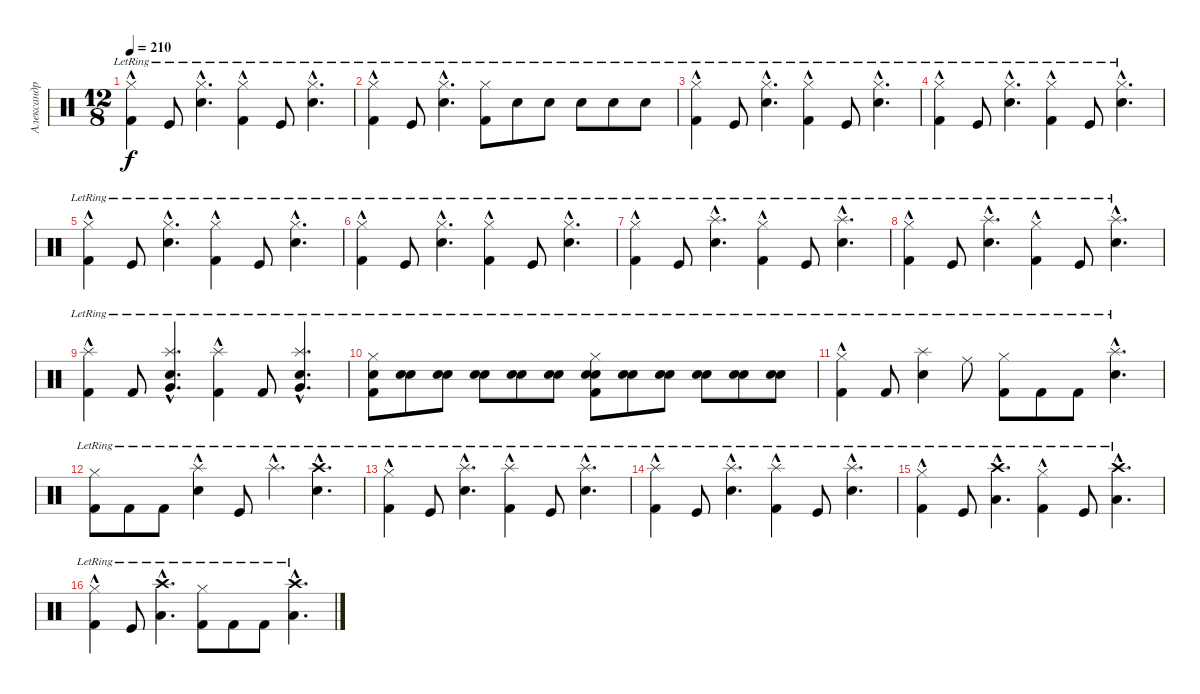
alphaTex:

\track ("Александр Манякин" "Александр ") {instrument percussion}
\staff {score}
\articulation defaults
\ts (12 8)
\tempo 210
\clef neutral
\ks c
("Hi-Hat (closed)"{hac lr} "Kick (hit) 2"{lr}).4{dy f} "Kick (hit)"{lr}.8 ("Hi-Hat (closed)"{hac lr} "Snare (hit) 2"{hac lr}).4{d} ("Hi-Hat (closed)"{hac lr} "Kick (hit) 2"{lr}).4 "Kick (hit)"{lr}.8 ("Hi-Hat (closed)"{hac lr} "Snare (hit) 2"{hac lr}).4{d} |
("Hi-Hat (closed)"{hac lr} "Kick (hit) 2"{lr}).4 "Kick (hit)"{lr}.8 ("Hi-Hat (closed)"{hac lr} "Snare (hit) 2"{hac lr}).4{d} ("Hi-Hat (closed)"{lr} "Kick (hit) 2"{lr}).8 "Snare (hit) 2"{lr}.8 "Snare (hit) 2"{lr}.8 "Snare (hit) 2"{lr}.8 "Snare (hit) 2"{lr}.8 "Snare (hit) 2"{lr}.8 |
("Hi-Hat (closed)"{hac lr} "Kick (hit) 2"{lr}).4 "Kick (hit)"{lr}.8 ("Hi-Hat (closed)"{hac lr} "Snare (hit) 2"{hac lr}).4{d} ("Hi-Hat (closed)"{hac lr} "Kick (hit) 2"{lr}).4 "Kick (hit)"{lr}.8 ("Hi-Hat (closed)"{hac lr} "Snare (hit) 2"{hac lr}).4{d} |
("Hi-Hat (closed)"{hac lr} "Kick (hit) 2"{lr}).4 "Kick (hit)"{lr}.8 ("Hi-Hat (closed)"{hac lr} "Snare (hit) 2"{hac lr}).4{d} ("Hi-Hat (closed)"{hac lr} "Kick (hit) 2"{lr}).4 "Kick (hit)"{lr}.8 ("Hi-Hat (closed)"{hac lr} "Snare (hit) 2"{hac lr}).4{d} |
("Hi-Hat (closed)"{hac lr} "Kick (hit) 2"{lr}).4 "Kick (hit)"{lr}.8 ("Hi-Hat (closed)"{hac lr} "Snare (hit) 2"{hac lr}).4{d} ("Hi-Hat (closed)"{hac lr} "Kick (hit) 2"{lr}).4 "Kick (hit)"{lr}.8 ("Hi-Hat (closed)"{hac lr} "Snare (hit) 2"{hac lr}).4{d} |
("Hi-Hat (closed)"{hac lr} "Kick (hit) 2"{lr}).4 "Kick (hit)"{lr}.8 ("Hi-Hat (closed)"{hac lr} "Snare (hit) 2"{hac lr}).4{d} ("Hi-Hat (closed)"{hac lr} "Kick (hit) 2"{lr}).4 "Kick (hit)"{lr}.8 ("Hi-Hat (closed)"{hac lr} "Snare (hit) 2"{hac lr}).4{d} |
("Kick (hit) 2"{lr} "Hi-Hat (closed)"{hac lr}).4 "Kick (hit)"{lr}.8 ("Snare (hit) 2"{hac lr} "Splash (hit)"{hac lr}).4{d} ("Kick (hit) 2"{lr} "Hi-Hat (closed)"{hac lr}).4 "Kick (hit)"{lr}.8 ("Splash (hit)"{hac lr} "Snare (hit) 2"{hac lr}).4{d} |
("Kick (hit) 2"{lr} "Hi-Hat (closed)"{hac lr}).4 "Kick (hit)"{lr}.8 ("Snare (hit) 2"{hac lr} "Splash (hit)"{hac lr}).4{d} ("Kick (hit) 2"{lr} "Hi-Hat (closed)"{hac lr}).4 "Kick (hit)"{lr}.8 ("Splash (hit)"{hac lr} "Snare (hit) 2"{hac lr}).4{d} |
("Kick (hit) 2"{lr} "Splash (hit)"{hac lr}).4 "Kick (hit) 2"{lr}.8 ("Very Low Tom (hit)"{hac lr} "Snare (hit) 2"{hac lr} "Splash (hit)"{hac lr}).4{d} ("Kick (hit) 2"{lr} "Splash (hit)"{hac lr}).4 "Kick (hit) 2"{lr}.8 ("Splash (hit)"{hac lr} "Snare (hit) 2"{hac lr} "Very Low Tom (hit)"{hac lr}).4{d} |
("Snare (hit) 2"{lr} "Hi-Hat (closed)"{lr} "Kick (hit) 2"{lr}).8 ("Electric Snare (hit)"{lr} "Snare (hit) 2"{lr}).8 ("Electric Snare (hit)"{lr} "Snare (hit) 2"{lr}).8 ("Electric Snare (hit)"{lr} "Snare (hit) 2"{lr}).8 ("Electric Snare (hit)"{lr} "Snare (hit) 2"{lr}).8 ("Electric Snare (hit)"{lr} "Snare (hit) 2"{lr}).8 ("Electric Snare (hit)"{lr} "Snare (hit) 2"{lr} "Hi-Hat (closed)"{lr} "Kick (hit) 2"{lr}).8 ("Electric Snare (hit)"{lr} "Snare (hit) 2"{lr}).8 ("Electric Snare (hit)"{lr} "Snare (hit) 2"{lr}).8 ("Electric Snare (hit)"{lr} "Snare (hit) 2"{lr}).8 ("Electric Snare (hit)"{lr} "Snare (hit) 2"{lr}).8 ("Electric Snare (hit)"{lr} "Snare (hit) 2"{lr}).8 |
("Hi-Hat (closed)"{hac lr} "Kick (hit) 2"{lr}).4 "Kick (hit) 2"{lr}.8 ("Splash (hit)"{lr} "Snare (hit) 2"{lr}).4 "Ride (middle)"{lr}.8 ("Hi-Hat (closed)"{lr} "Kick (hit) 2"{lr}).8 "Kick (hit) 2"{lr}.8 "Kick (hit) 2"{lr}.8 ("Splash (hit)"{hac lr} "Electric Snare (hit)"{hac lr}).4{d} |
("Hi-Hat (closed)"{lr} "Kick (hit) 2"{lr}).8 "Kick (hit) 2"{lr}.8 "Kick (hit) 2"{lr}.8 ("Splash (hit)"{hac lr} "Snare (hit) 2"{lr}).4 "Kick (hit)"{lr}.8 "Splash (hit)"{hac lr}.4{d} ("Crash high (hit)"{hac lr} "Snare (hit) 2"{hac lr}).4{d} |
("Hi-Hat (closed)"{hac lr} "Kick (hit) 2"{lr}).4 "Kick (hit)"{lr}.8 ("Snare (hit) 2"{hac lr} "Splash (hit)"{hac lr}).4{d} ("Kick (hit) 2"{lr} "Splash (hit)"{hac lr}).4 "Kick (hit)"{lr}.8 ("Snare (hit) 2"{hac lr} "Splash (hit)"{hac lr}).4{d} |
("Kick (hit) 2"{lr} "Splash (hit)"{hac lr}).4 "Kick (hit)"{lr}.8 ("Snare (hit) 2"{hac lr} "Splash (hit)"{hac lr}).4{d} ("Kick (hit) 2"{lr} "Splash (hit)"{hac lr}).4 "Kick (hit)"{lr}.8 ("Snare (hit) 2"{hac lr} "Splash (hit)"{hac lr}).4{d} |
("Kick (hit) 2"{lr} "Hi-Hat (closed)"{hac lr}).4 "Kick (hit)"{lr}.8 ("Crash high (hit)"{hac lr} "Low Tom (hit)"{hac lr}).4{d} ("Hi-Hat (closed)"{hac lr} "Kick (hit) 2"{lr}).4 "Kick (hit)"{lr}.8 ("Crash high (hit)"{hac lr} "Low Tom (hit)"{hac lr}).4{d} |
("Hi-Hat (closed)"{hac lr} "Kick (hit) 2"{lr}).4 "Kick (hit)"{lr}.8 ("Crash high (hit)"{hac lr} "Low Tom (hit)"{hac lr}).4{d} ("Hi-Hat (closed)"{lr} "Kick (hit) 2"{lr}).8 "Kick (hit) 2"{lr}.8 "Kick (hit) 2"{lr}.8 ("Crash high (hit)"{hac lr} "Low Tom (hit)"{hac lr}).4{d}
